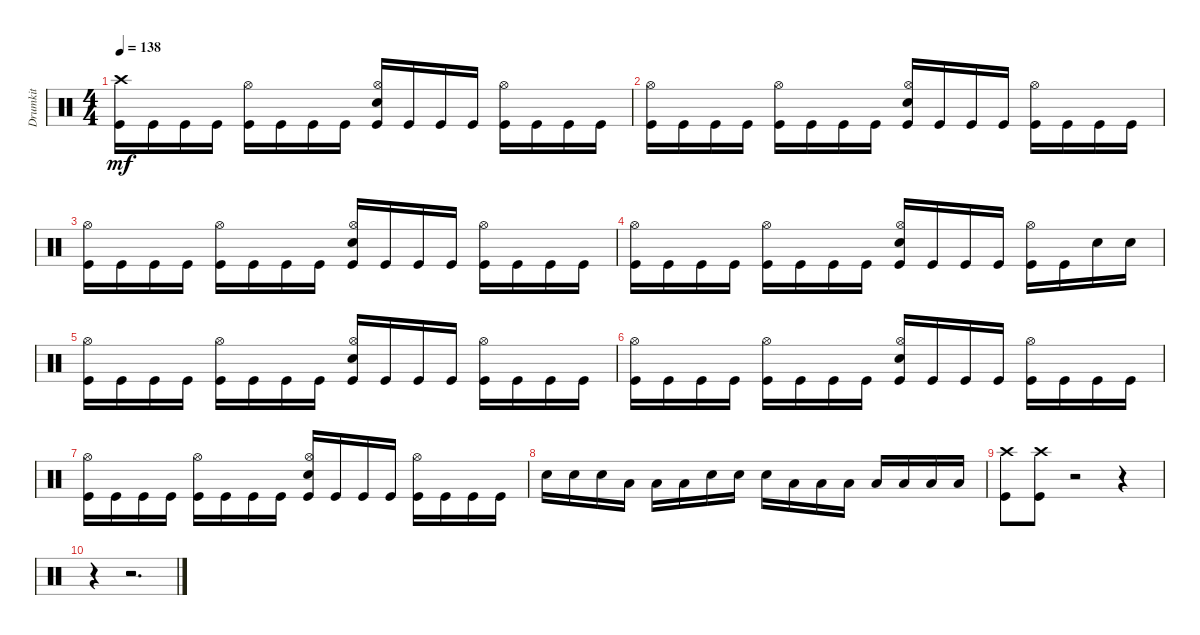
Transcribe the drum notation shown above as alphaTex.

\track ("Drumkit" "Drumkit") {instrument percussion}
\staff {score}
\articulation defaults
\ts (4 4)
\tempo 138
\clef neutral
\ks c
("Crash high (hit)" "Kick (hit)").16{dy mf} "Kick (hit)".16 "Kick (hit)".16 "Kick (hit)".16 ("Hi-Hat (open)" "Kick (hit)").16 "Kick (hit)".16 "Kick (hit)".16 "Kick (hit)".16 ("Hi-Hat (open)" "Snare (hit) 2" "Kick (hit)").16 "Kick (hit)".16 "Kick (hit)".16 "Kick (hit)".16 ("Hi-Hat (open)" "Kick (hit)").16 "Kick (hit)".16 "Kick (hit)".16 "Kick (hit)".16 |
("Hi-Hat (open)" "Kick (hit)").16 "Kick (hit)".16 "Kick (hit)".16 "Kick (hit)".16 ("Hi-Hat (open)" "Kick (hit)").16 "Kick (hit)".16 "Kick (hit)".16 "Kick (hit)".16 ("Hi-Hat (open)" "Snare (hit) 2" "Kick (hit)").16 "Kick (hit)".16 "Kick (hit)".16 "Kick (hit)".16 ("Hi-Hat (open)" "Kick (hit)").16 "Kick (hit)".16 "Kick (hit)".16 "Kick (hit)".16 |
("Hi-Hat (open)" "Kick (hit)").16 "Kick (hit)".16 "Kick (hit)".16 "Kick (hit)".16 ("Hi-Hat (open)" "Kick (hit)").16 "Kick (hit)".16 "Kick (hit)".16 "Kick (hit)".16 ("Hi-Hat (open)" "Snare (hit) 2" "Kick (hit)").16 "Kick (hit)".16 "Kick (hit)".16 "Kick (hit)".16 ("Hi-Hat (open)" "Kick (hit)").16 "Kick (hit)".16 "Kick (hit)".16 "Kick (hit)".16 |
("Hi-Hat (open)" "Kick (hit)").16 "Kick (hit)".16 "Kick (hit)".16 "Kick (hit)".16 ("Hi-Hat (open)" "Kick (hit)").16 "Kick (hit)".16 "Kick (hit)".16 "Kick (hit)".16 ("Hi-Hat (open)" "Snare (hit) 2" "Kick (hit)").16 "Kick (hit)".16 "Kick (hit)".16 "Kick (hit)".16 ("Hi-Hat (open)" "Kick (hit)").16 "Kick (hit)".16 "Snare (hit) 2".16 "Snare (hit) 2".16 |
("Hi-Hat (open)" "Kick (hit)").16 "Kick (hit)".16 "Kick (hit)".16 "Kick (hit)".16 ("Hi-Hat (open)" "Kick (hit)").16 "Kick (hit)".16 "Kick (hit)".16 "Kick (hit)".16 ("Hi-Hat (open)" "Snare (hit) 2" "Kick (hit)").16 "Kick (hit)".16 "Kick (hit)".16 "Kick (hit)".16 ("Hi-Hat (open)" "Kick (hit)").16 "Kick (hit)".16 "Kick (hit)".16 "Kick (hit)".16 |
("Hi-Hat (open)" "Kick (hit)").16 "Kick (hit)".16 "Kick (hit)".16 "Kick (hit)".16 ("Hi-Hat (open)" "Kick (hit)").16 "Kick (hit)".16 "Kick (hit)".16 "Kick (hit)".16 ("Hi-Hat (open)" "Snare (hit) 2" "Kick (hit)").16 "Kick (hit)".16 "Kick (hit)".16 "Kick (hit)".16 ("Hi-Hat (open)" "Kick (hit)").16 "Kick (hit)".16 "Kick (hit)".16 "Kick (hit)".16 |
("Hi-Hat (open)" "Kick (hit)").16 "Kick (hit)".16 "Kick (hit)".16 "Kick (hit)".16 ("Hi-Hat (open)" "Kick (hit)").16 "Kick (hit)".16 "Kick (hit)".16 "Kick (hit)".16 ("Hi-Hat (open)" "Snare (hit) 2" "Kick (hit)").16 "Kick (hit)".16 "Kick (hit)".16 "Kick (hit)".16 ("Hi-Hat (open)" "Kick (hit)").16 "Kick (hit)".16 "Kick (hit)".16 "Kick (hit)".16 |
"Snare (hit) 2".16 "Snare (hit) 2".16 "Snare (hit) 2".16 "Low Tom (hit)".16 "Low Tom (hit)".16 "Low Tom (hit)".16 "Snare (hit) 2".16 "Snare (hit) 2".16 "Snare (hit) 2".16 "Low Tom (hit)".16 "Low Tom (hit)".16 "Low Tom (hit)".16 "Low Floor Tom (hit)".16 "Low Floor Tom (hit)".16 "Low Floor Tom (hit)".16 "Low Floor Tom (hit)".16 |
("Crash high (hit)" "Kick (hit)").8 ("Crash high (hit)" "Kick (hit)").8 r.2 r.4 |
r.4 r.2{d}
